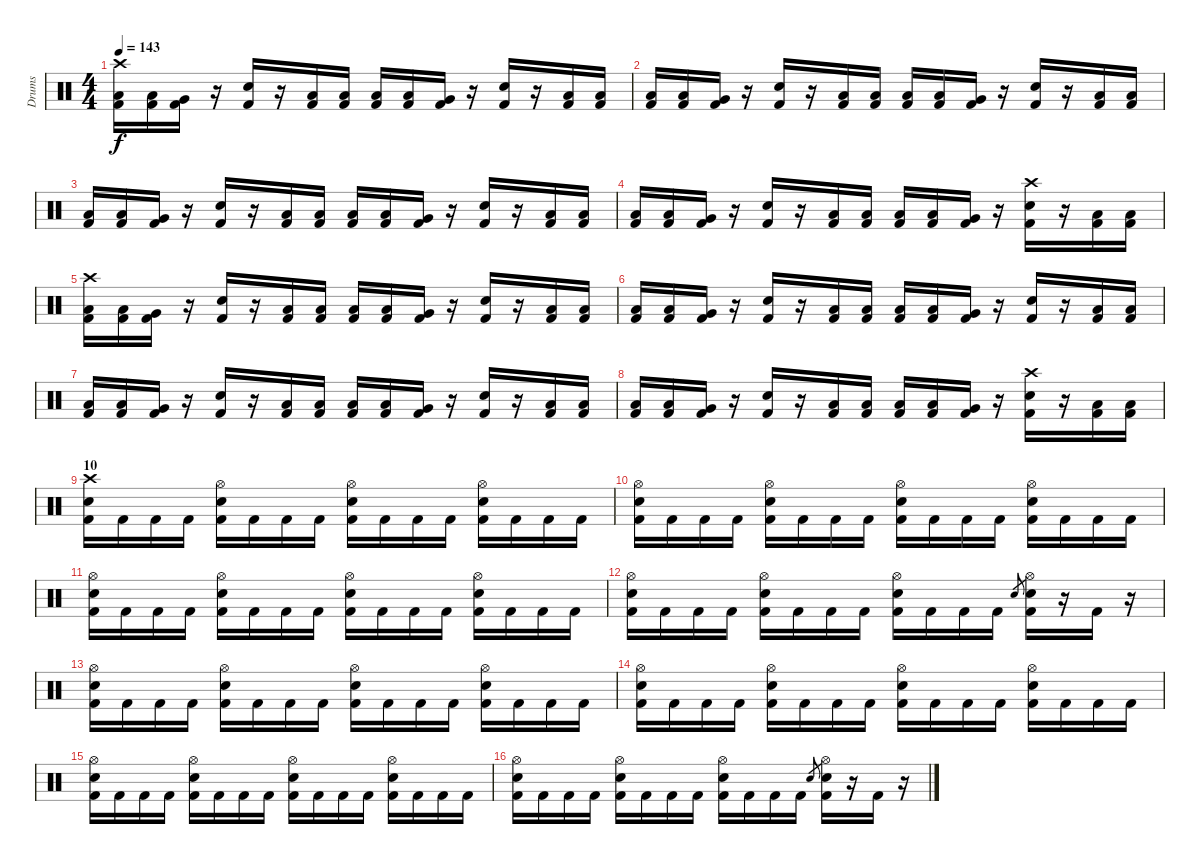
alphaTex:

\track ("Drums" "Drums") {instrument percussion}
\staff {score}
\articulation defaults
\ts (4 4)
\tempo 143
\clef neutral
\ks c
("Crash high (hit)" "Kick (hit) 2" "Low Tom (hit)").16{dy f} ("Kick (hit) 2" "Low Tom (hit)").16 ("Kick (hit) 2" "Very Low Tom (hit)").16 r.16 ("Kick (hit) 2" "Electric Snare (hit)").16 r.16 ("Kick (hit) 2" "Low Tom (hit)").16 ("Kick (hit) 2" "Low Tom (hit)").16 ("Kick (hit) 2" "Low Tom (hit)").16 ("Kick (hit) 2" "Low Tom (hit)").16 ("Kick (hit) 2" "Very Low Tom (hit)").16 r.16 ("Kick (hit) 2" "Electric Snare (hit)").16 r.16 ("Kick (hit) 2" "Low Tom (hit)").16 ("Kick (hit) 2" "Low Tom (hit)").16 |
("Kick (hit) 2" "Low Tom (hit)").16 ("Kick (hit) 2" "Low Tom (hit)").16 ("Kick (hit) 2" "Very Low Tom (hit)").16 r.16 ("Kick (hit) 2" "Electric Snare (hit)").16 r.16 ("Kick (hit) 2" "Low Tom (hit)").16 ("Kick (hit) 2" "Low Tom (hit)").16 ("Kick (hit) 2" "Low Tom (hit)").16 ("Kick (hit) 2" "Low Tom (hit)").16 ("Kick (hit) 2" "Very Low Tom (hit)").16 r.16 ("Kick (hit) 2" "Electric Snare (hit)").16 r.16 ("Kick (hit) 2" "Low Tom (hit)").16 ("Kick (hit) 2" "Low Tom (hit)").16 |
("Kick (hit) 2" "Low Tom (hit)").16 ("Kick (hit) 2" "Low Tom (hit)").16 ("Kick (hit) 2" "Very Low Tom (hit)").16 r.16 ("Kick (hit) 2" "Electric Snare (hit)").16 r.16 ("Kick (hit) 2" "Low Tom (hit)").16 ("Kick (hit) 2" "Low Tom (hit)").16 ("Kick (hit) 2" "Low Tom (hit)").16 ("Kick (hit) 2" "Low Tom (hit)").16 ("Kick (hit) 2" "Very Low Tom (hit)").16 r.16 ("Kick (hit) 2" "Electric Snare (hit)").16 r.16 ("Kick (hit) 2" "Low Tom (hit)").16 ("Kick (hit) 2" "Low Tom (hit)").16 |
("Kick (hit) 2" "Low Tom (hit)").16 ("Kick (hit) 2" "Low Tom (hit)").16 ("Kick (hit) 2" "Very Low Tom (hit)").16 r.16 ("Kick (hit) 2" "Electric Snare (hit)").16 r.16 ("Kick (hit) 2" "Low Tom (hit)").16 ("Kick (hit) 2" "Low Tom (hit)").16 ("Kick (hit) 2" "Low Tom (hit)").16 ("Kick (hit) 2" "Low Tom (hit)").16 ("Kick (hit) 2" "Very Low Tom (hit)").16 r.16 ("Crash high (hit)" "Kick (hit) 2" "Electric Snare (hit)").16 r.16 ("Kick (hit) 2" "Low Tom (hit)").16 ("Kick (hit) 2" "Low Tom (hit)").16 |
("Crash high (hit)" "Kick (hit) 2" "Low Tom (hit)").16 ("Kick (hit) 2" "Low Tom (hit)").16 ("Kick (hit) 2" "Very Low Tom (hit)").16 r.16 ("Kick (hit) 2" "Electric Snare (hit)").16 r.16 ("Kick (hit) 2" "Low Tom (hit)").16 ("Kick (hit) 2" "Low Tom (hit)").16 ("Kick (hit) 2" "Low Tom (hit)").16 ("Kick (hit) 2" "Low Tom (hit)").16 ("Kick (hit) 2" "Very Low Tom (hit)").16 r.16 ("Kick (hit) 2" "Electric Snare (hit)").16 r.16 ("Kick (hit) 2" "Low Tom (hit)").16 ("Kick (hit) 2" "Low Tom (hit)").16 |
("Kick (hit) 2" "Low Tom (hit)").16 ("Kick (hit) 2" "Low Tom (hit)").16 ("Kick (hit) 2" "Very Low Tom (hit)").16 r.16 ("Kick (hit) 2" "Electric Snare (hit)").16 r.16 ("Kick (hit) 2" "Low Tom (hit)").16 ("Kick (hit) 2" "Low Tom (hit)").16 ("Kick (hit) 2" "Low Tom (hit)").16 ("Kick (hit) 2" "Low Tom (hit)").16 ("Kick (hit) 2" "Very Low Tom (hit)").16 r.16 ("Kick (hit) 2" "Electric Snare (hit)").16 r.16 ("Kick (hit) 2" "Low Tom (hit)").16 ("Kick (hit) 2" "Low Tom (hit)").16 |
("Kick (hit) 2" "Low Tom (hit)").16 ("Kick (hit) 2" "Low Tom (hit)").16 ("Kick (hit) 2" "Very Low Tom (hit)").16 r.16 ("Kick (hit) 2" "Electric Snare (hit)").16 r.16 ("Kick (hit) 2" "Low Tom (hit)").16 ("Kick (hit) 2" "Low Tom (hit)").16 ("Kick (hit) 2" "Low Tom (hit)").16 ("Kick (hit) 2" "Low Tom (hit)").16 ("Kick (hit) 2" "Very Low Tom (hit)").16 r.16 ("Kick (hit) 2" "Electric Snare (hit)").16 r.16 ("Kick (hit) 2" "Low Tom (hit)").16 ("Kick (hit) 2" "Low Tom (hit)").16 |
("Kick (hit) 2" "Low Tom (hit)").16 ("Kick (hit) 2" "Low Tom (hit)").16 ("Kick (hit) 2" "Very Low Tom (hit)").16 r.16 ("Kick (hit) 2" "Electric Snare (hit)").16 r.16 ("Kick (hit) 2" "Low Tom (hit)").16 ("Kick (hit) 2" "Low Tom (hit)").16 ("Kick (hit) 2" "Low Tom (hit)").16 ("Kick (hit) 2" "Low Tom (hit)").16 ("Kick (hit) 2" "Very Low Tom (hit)").16 r.16 ("Crash high (hit)" "Kick (hit) 2" "Electric Snare (hit)").16 r.16 ("Kick (hit) 2" "Low Tom (hit)").16 ("Kick (hit) 2" "Low Tom (hit)").16 |
\section ("" "10")
("Crash high (hit)" "Kick (hit) 2" "Electric Snare (hit)").16 "Kick (hit) 2".16 "Kick (hit) 2".16 "Kick (hit) 2".16 ("Hi-Hat (open)" "Kick (hit) 2" "Electric Snare (hit)").16 "Kick (hit) 2".16 "Kick (hit) 2".16 "Kick (hit) 2".16 ("Hi-Hat (open)" "Kick (hit) 2" "Electric Snare (hit)").16 "Kick (hit) 2".16 "Kick (hit) 2".16 "Kick (hit) 2".16 ("Hi-Hat (open)" "Kick (hit) 2" "Electric Snare (hit)").16 "Kick (hit) 2".16 "Kick (hit) 2".16 "Kick (hit) 2".16 |
("Hi-Hat (open)" "Kick (hit) 2" "Electric Snare (hit)").16 "Kick (hit) 2".16 "Kick (hit) 2".16 "Kick (hit) 2".16 ("Hi-Hat (open)" "Kick (hit) 2" "Electric Snare (hit)").16 "Kick (hit) 2".16 "Kick (hit) 2".16 "Kick (hit) 2".16 ("Hi-Hat (open)" "Kick (hit) 2" "Electric Snare (hit)").16 "Kick (hit) 2".16 "Kick (hit) 2".16 "Kick (hit) 2".16 ("Hi-Hat (open)" "Kick (hit) 2" "Electric Snare (hit)").16 "Kick (hit) 2".16 "Kick (hit) 2".16 "Kick (hit) 2".16 |
("Hi-Hat (open)" "Kick (hit) 2" "Electric Snare (hit)").16 "Kick (hit) 2".16 "Kick (hit) 2".16 "Kick (hit) 2".16 ("Hi-Hat (open)" "Kick (hit) 2" "Electric Snare (hit)").16 "Kick (hit) 2".16 "Kick (hit) 2".16 "Kick (hit) 2".16 ("Hi-Hat (open)" "Kick (hit) 2" "Electric Snare (hit)").16 "Kick (hit) 2".16 "Kick (hit) 2".16 "Kick (hit) 2".16 ("Hi-Hat (open)" "Kick (hit) 2" "Electric Snare (hit)").16 "Kick (hit) 2".16 "Kick (hit) 2".16 "Kick (hit) 2".16 |
("Hi-Hat (open)" "Kick (hit) 2" "Electric Snare (hit)").16 "Kick (hit) 2".16 "Kick (hit) 2".16 "Kick (hit) 2".16 ("Hi-Hat (open)" "Kick (hit) 2" "Electric Snare (hit)").16 "Kick (hit) 2".16 "Kick (hit) 2".16 "Kick (hit) 2".16 ("Hi-Hat (open)" "Kick (hit) 2" "Electric Snare (hit)").16 "Kick (hit) 2".16 "Kick (hit) 2".16 "Kick (hit) 2".16 "Electric Snare (hit)".8{gr} ("Hi-Hat (open)" "Kick (hit) 2" "Electric Snare (hit)").16 r.16 "Kick (hit) 2".16 r.16 |
("Hi-Hat (open)" "Kick (hit) 2" "Electric Snare (hit)").16 "Kick (hit) 2".16 "Kick (hit) 2".16 "Kick (hit) 2".16 ("Hi-Hat (open)" "Kick (hit) 2" "Electric Snare (hit)").16 "Kick (hit) 2".16 "Kick (hit) 2".16 "Kick (hit) 2".16 ("Hi-Hat (open)" "Kick (hit) 2" "Electric Snare (hit)").16 "Kick (hit) 2".16 "Kick (hit) 2".16 "Kick (hit) 2".16 ("Hi-Hat (open)" "Kick (hit) 2" "Electric Snare (hit)").16 "Kick (hit) 2".16 "Kick (hit) 2".16 "Kick (hit) 2".16 |
("Hi-Hat (open)" "Kick (hit) 2" "Electric Snare (hit)").16 "Kick (hit) 2".16 "Kick (hit) 2".16 "Kick (hit) 2".16 ("Hi-Hat (open)" "Kick (hit) 2" "Electric Snare (hit)").16 "Kick (hit) 2".16 "Kick (hit) 2".16 "Kick (hit) 2".16 ("Hi-Hat (open)" "Kick (hit) 2" "Electric Snare (hit)").16 "Kick (hit) 2".16 "Kick (hit) 2".16 "Kick (hit) 2".16 ("Hi-Hat (open)" "Kick (hit) 2" "Electric Snare (hit)").16 "Kick (hit) 2".16 "Kick (hit) 2".16 "Kick (hit) 2".16 |
("Hi-Hat (open)" "Kick (hit) 2" "Electric Snare (hit)").16 "Kick (hit) 2".16 "Kick (hit) 2".16 "Kick (hit) 2".16 ("Hi-Hat (open)" "Kick (hit) 2" "Electric Snare (hit)").16 "Kick (hit) 2".16 "Kick (hit) 2".16 "Kick (hit) 2".16 ("Hi-Hat (open)" "Kick (hit) 2" "Electric Snare (hit)").16 "Kick (hit) 2".16 "Kick (hit) 2".16 "Kick (hit) 2".16 ("Hi-Hat (open)" "Kick (hit) 2" "Electric Snare (hit)").16 "Kick (hit) 2".16 "Kick (hit) 2".16 "Kick (hit) 2".16 |
("Hi-Hat (open)" "Kick (hit) 2" "Electric Snare (hit)").16 "Kick (hit) 2".16 "Kick (hit) 2".16 "Kick (hit) 2".16 ("Hi-Hat (open)" "Kick (hit) 2" "Electric Snare (hit)").16 "Kick (hit) 2".16 "Kick (hit) 2".16 "Kick (hit) 2".16 ("Hi-Hat (open)" "Kick (hit) 2" "Electric Snare (hit)").16 "Kick (hit) 2".16 "Kick (hit) 2".16 "Kick (hit) 2".16 "Electric Snare (hit)".8{gr} ("Hi-Hat (open)" "Kick (hit) 2" "Electric Snare (hit)").16 r.16 "Kick (hit) 2".16 r.16
